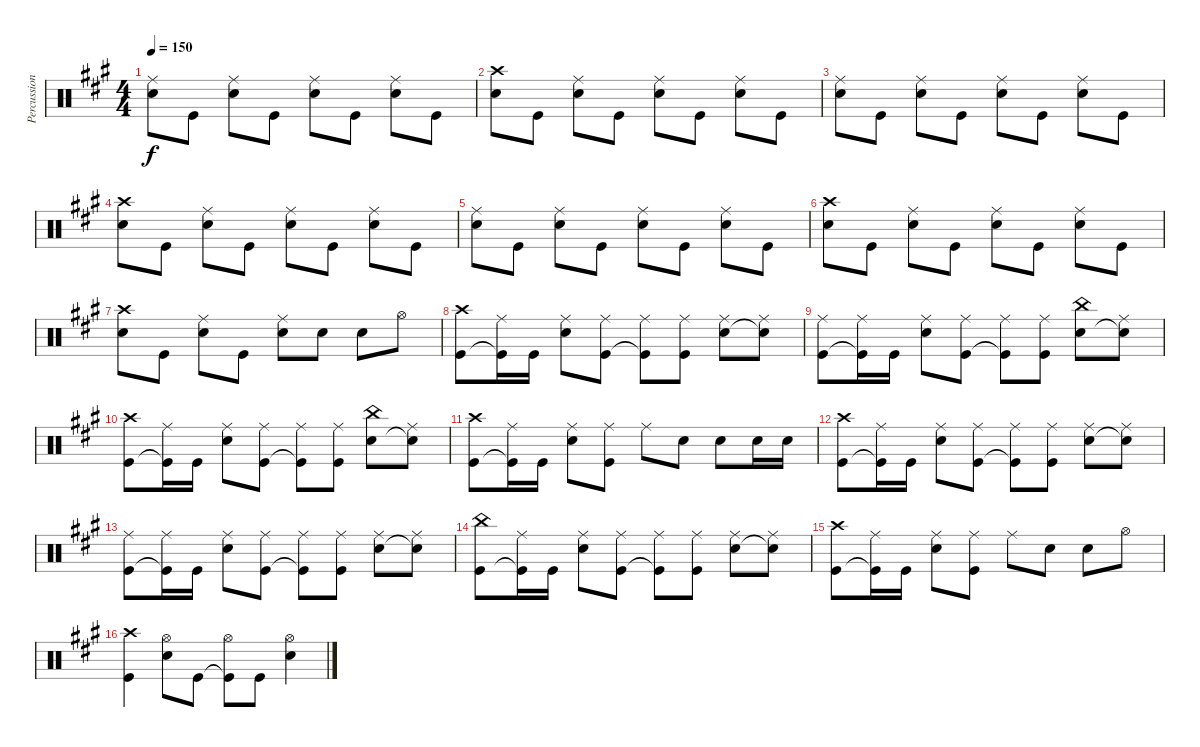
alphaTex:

\track ("Percussion" "Percussion") {instrument percussion}
\staff {score}
\articulation defaults
\ts (4 4)
\tempo 150
\clef neutral
\ks a
("Snare (hit) 2" "Ride (middle)").8{dy f} "Kick (hit)".8 ("Snare (hit) 2" "Ride (middle)").8 "Kick (hit)".8 ("Snare (hit) 2" "Ride (middle)").8 "Kick (hit)".8 ("Snare (hit) 2" "Ride (middle)").8 "Kick (hit)".8 |
("Snare (hit) 2" "Crash high (hit)").8 "Kick (hit)".8 ("Snare (hit) 2" "Ride (middle)").8 "Kick (hit)".8 ("Snare (hit) 2" "Ride (middle)").8 "Kick (hit)".8 ("Snare (hit) 2" "Ride (middle)").8 "Kick (hit)".8 |
("Snare (hit) 2" "Ride (middle)").8 "Kick (hit)".8 ("Snare (hit) 2" "Ride (middle)").8 "Kick (hit)".8 ("Snare (hit) 2" "Ride (middle)").8 "Kick (hit)".8 ("Snare (hit) 2" "Ride (middle)").8 "Kick (hit)".8 |
("Snare (hit) 2" "Crash high (hit)").8 "Kick (hit)".8 ("Snare (hit) 2" "Ride (middle)").8 "Kick (hit)".8 ("Snare (hit) 2" "Ride (middle)").8 "Kick (hit)".8 ("Snare (hit) 2" "Ride (middle)").8 "Kick (hit)".8 |
("Snare (hit) 2" "Ride (middle)").8 "Kick (hit)".8 ("Snare (hit) 2" "Ride (middle)").8 "Kick (hit)".8 ("Snare (hit) 2" "Ride (middle)").8 "Kick (hit)".8 ("Snare (hit) 2" "Ride (middle)").8 "Kick (hit)".8 |
("Snare (hit) 2" "Crash high (hit)").8 "Kick (hit)".8 ("Snare (hit) 2" "Ride (middle)").8 "Kick (hit)".8 ("Snare (hit) 2" "Ride (middle)").8 "Kick (hit)".8 ("Snare (hit) 2" "Ride (middle)").8 "Kick (hit)".8 |
("Snare (hit) 2" "Crash high (hit)").8 "Kick (hit)".8 ("Snare (hit) 2" "Ride (middle)").8 "Kick (hit)".8 ("Snare (hit) 2" "Ride (middle)").8 "Snare (hit) 2".8 "Snare (hit) 2".8 "Hi-Hat (open)".8 |
("Kick (hit)" "Crash high (hit)").8 ("Kick (hit)"{t} "Ride (middle)").16 "Kick (hit)".16 ("Snare (hit) 2" "Ride (middle)").8 ("Kick (hit)" "Ride (middle)").8 ("Kick (hit)"{t} "Ride (middle)").8 ("Kick (hit)" "Ride (middle)").8 ("Snare (hit) 2" "Ride (middle)").8 ("Snare (hit) 2"{t} "Ride (middle)").8 |
("Kick (hit)" "Ride (middle)").8 ("Kick (hit)"{t} "Ride (middle)").16 "Kick (hit)".16 ("Snare (hit) 2" "Ride (middle)").8 ("Kick (hit)" "Ride (middle)").8 ("Kick (hit)"{t} "Ride (middle)").8 ("Kick (hit)" "Ride (middle)").8 ("Snare (hit) 2" "China (hit)").8 ("Snare (hit) 2"{t} "Ride (middle)").8 |
("Kick (hit)" "Crash high (hit)").8 ("Kick (hit)"{t} "Ride (middle)").16 "Kick (hit)".16 ("Snare (hit) 2" "Ride (middle)").8 ("Kick (hit)" "Ride (middle)").8 ("Kick (hit)"{t} "Ride (middle)").8 ("Kick (hit)" "Ride (middle)").8 ("Snare (hit) 2" "China (hit)").8 ("Snare (hit) 2"{t} "Ride (middle)").8 |
("Kick (hit)" "Crash high (hit)").8 ("Kick (hit)"{t} "Ride (middle)").16 "Kick (hit)".16 ("Snare (hit) 2" "Ride (middle)").8 ("Kick (hit)" "Ride (middle)").8 "Ride (middle)".8 "Snare (hit) 2".8 "Snare (hit) 2".8 "Snare (hit) 2".16 "Snare (hit) 2".16 |
("Kick (hit)" "Crash high (hit)").8 ("Kick (hit)"{t} "Ride (middle)").16 "Kick (hit)".16 ("Snare (hit) 2" "Ride (middle)").8 ("Kick (hit)" "Ride (middle)").8 ("Kick (hit)"{t} "Ride (middle)").8 ("Kick (hit)" "Ride (middle)").8 ("Snare (hit) 2" "Ride (middle)").8 ("Snare (hit) 2"{t} "Ride (middle)").8 |
("Kick (hit)" "Ride (middle)").8 ("Kick (hit)"{t} "Ride (middle)").16 "Kick (hit)".16 ("Snare (hit) 2" "Ride (middle)").8 ("Kick (hit)" "Ride (middle)").8 ("Kick (hit)"{t} "Ride (middle)").8 ("Kick (hit)" "Ride (middle)").8 ("Snare (hit) 2" "Ride (middle)").8 ("Snare (hit) 2"{t} "Ride (middle)").8 |
("Kick (hit)" "China (hit)").8 ("Kick (hit)"{t} "Ride (middle)").16 "Kick (hit)".16 ("Snare (hit) 2" "Ride (middle)").8 ("Kick (hit)" "Ride (middle)").8 ("Kick (hit)"{t} "Ride (middle)").8 ("Kick (hit)" "Ride (middle)").8 ("Snare (hit) 2" "Ride (middle)").8 ("Snare (hit) 2"{t} "Ride (middle)").8 |
("Kick (hit)" "Crash high (hit)").8 ("Kick (hit)"{t} "Ride (middle)").16 "Kick (hit)".16 ("Snare (hit) 2" "Ride (middle)").8 ("Kick (hit)" "Ride (middle)").8 "Ride (middle)".8 "Snare (hit) 2".8 "Snare (hit) 2".8 "Hi-Hat (open)".8 |
("Kick (hit)" "Crash high (hit)").4 ("Snare (hit) 2" "Hi-Hat (open)").8 "Kick (hit)".8 ("Kick (hit)"{t} "Hi-Hat (open)").8 "Kick (hit)".8 ("Snare (hit) 2" "Hi-Hat (open)").4
